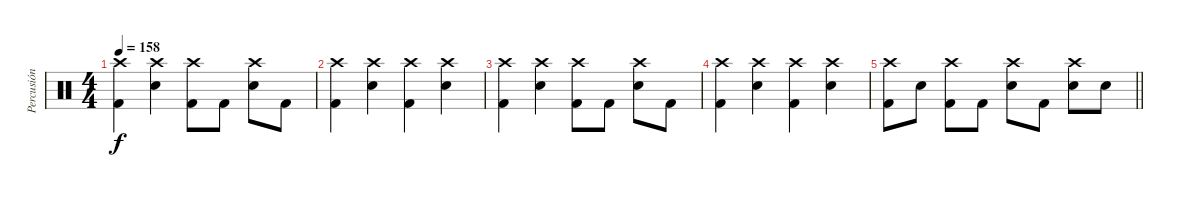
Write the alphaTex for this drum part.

\track ("Percusión" "Percusión") {instrument percussion}
\staff {score}
\articulation defaults
\ts (4 4)
\tempo 158
\clef neutral
\ks c
("Crash high (hit)" "Kick (hit) 2").4{dy f} ("Crash high (hit)" "Snare (hit) 2").4 ("Crash high (hit)" "Kick (hit) 2").8 "Kick (hit) 2".8 ("Crash high (hit)" "Snare (hit) 2").8 "Kick (hit) 2".8 |
("Crash high (hit)" "Kick (hit) 2").4{volume 0} ("Crash high (hit)" "Snare (hit) 2").4 ("Crash high (hit)" "Kick (hit) 2").4 ("Crash high (hit)" "Snare (hit) 2").4 |
("Crash high (hit)" "Kick (hit) 2").4 ("Crash high (hit)" "Snare (hit) 2").4 ("Crash high (hit)" "Kick (hit) 2").8 "Kick (hit) 2".8 ("Crash high (hit)" "Snare (hit) 2").8 "Kick (hit) 2".8 |
("Crash high (hit)" "Kick (hit) 2").4 ("Crash high (hit)" "Snare (hit) 2").4 ("Crash high (hit)" "Kick (hit) 2").4 ("Crash high (hit)" "Snare (hit) 2").4 |
\barLineRight lightlight
("Crash high (hit)" "Kick (hit) 2").8 "Snare (hit) 2".8 ("Crash high (hit)" "Kick (hit) 2").8 "Kick (hit) 2".8 ("Crash high (hit)" "Snare (hit) 2").8 "Kick (hit) 2".8 ("Crash high (hit)" "Snare (hit) 2").8 "Snare (hit) 2".8
